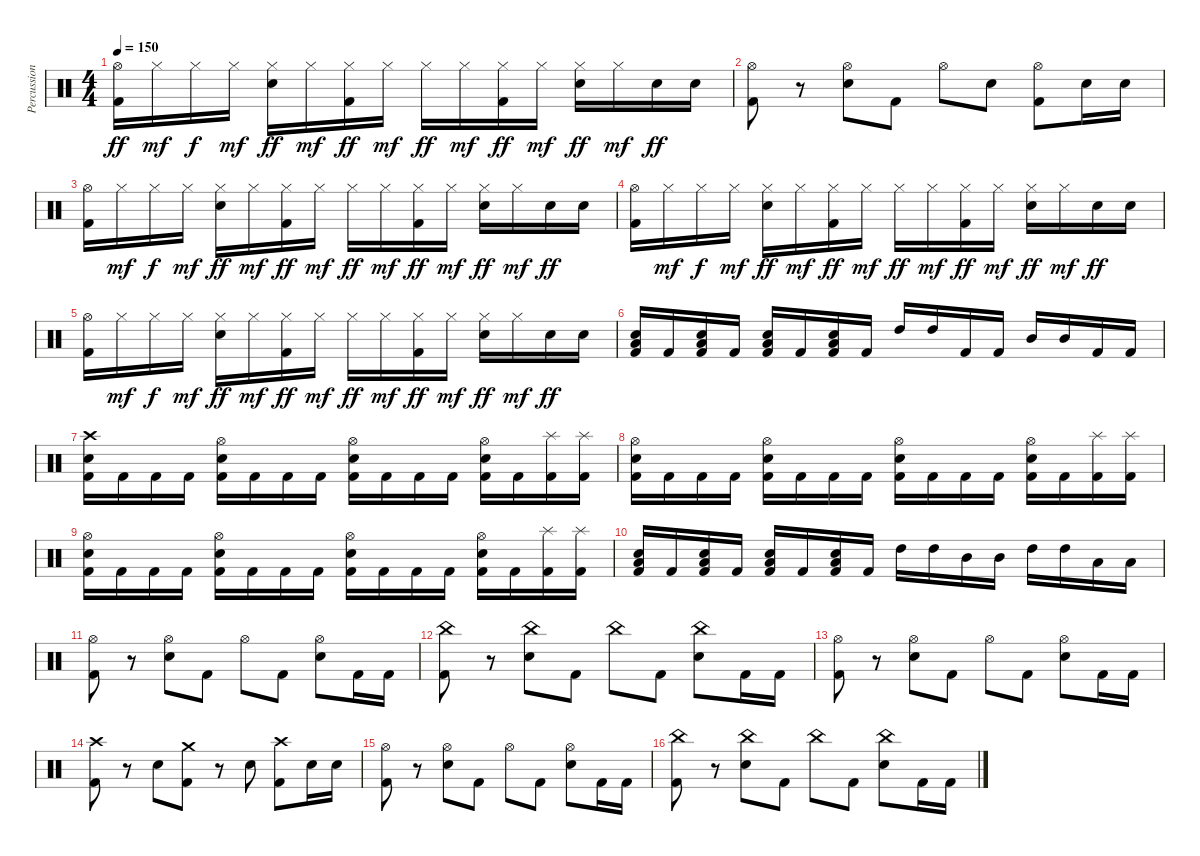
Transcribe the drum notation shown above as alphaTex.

\track ("Percussion" "Percussion") {instrument percussion}
\staff {score}
\articulation defaults
\ts (4 4)
\tempo 150
\clef neutral
\ks c
("Hi-Hat (open)" "Kick (hit) 2").16{dy ff} "Hi-Hat (closed)".16{dy mf} "Hi-Hat (closed)".16{dy f} "Hi-Hat (closed)".16{dy mf} ("Hi-Hat (closed)" "Snare (hit) 2").16{dy ff} "Hi-Hat (closed)".16{dy mf} ("Hi-Hat (closed)" "Kick (hit) 2").16{dy ff} "Hi-Hat (closed)".16{dy mf} "Hi-Hat (closed)".16{dy ff} "Hi-Hat (closed)".16{dy mf} ("Hi-Hat (closed)" "Kick (hit) 2").16{dy ff} "Hi-Hat (closed)".16{dy mf} ("Hi-Hat (closed)" "Snare (hit) 2").16{dy ff} "Hi-Hat (closed)".16{dy mf} "Snare (hit) 2".16{dy ff} "Snare (hit) 2".16 |
("Hi-Hat (open)" "Kick (hit) 2").8 r.8 ("Hi-Hat (open)" "Snare (hit) 2").8 "Kick (hit) 2".8 "Hi-Hat (open)".8 "Snare (hit) 2".8 ("Hi-Hat (open)" "Kick (hit) 2").8 "Snare (hit) 2".16 "Snare (hit) 2".16 |
("Hi-Hat (open)" "Kick (hit) 2").16 "Hi-Hat (closed)".16{dy mf} "Hi-Hat (closed)".16{dy f} "Hi-Hat (closed)".16{dy mf} ("Hi-Hat (closed)" "Snare (hit) 2").16{dy ff} "Hi-Hat (closed)".16{dy mf} ("Hi-Hat (closed)" "Kick (hit) 2").16{dy ff} "Hi-Hat (closed)".16{dy mf} "Hi-Hat (closed)".16{dy ff} "Hi-Hat (closed)".16{dy mf} ("Hi-Hat (closed)" "Kick (hit) 2").16{dy ff} "Hi-Hat (closed)".16{dy mf} ("Hi-Hat (closed)" "Snare (hit) 2").16{dy ff} "Hi-Hat (closed)".16{dy mf} "Snare (hit) 2".16{dy ff} "Snare (hit) 2".16 |
("Hi-Hat (open)" "Kick (hit) 2").16 "Hi-Hat (closed)".16{dy mf} "Hi-Hat (closed)".16{dy f} "Hi-Hat (closed)".16{dy mf} ("Hi-Hat (closed)" "Snare (hit) 2").16{dy ff} "Hi-Hat (closed)".16{dy mf} ("Hi-Hat (closed)" "Kick (hit) 2").16{dy ff} "Hi-Hat (closed)".16{dy mf} "Hi-Hat (closed)".16{dy ff} "Hi-Hat (closed)".16{dy mf} ("Hi-Hat (closed)" "Kick (hit) 2").16{dy ff} "Hi-Hat (closed)".16{dy mf} ("Hi-Hat (closed)" "Snare (hit) 2").16{dy ff} "Hi-Hat (closed)".16{dy mf} "Snare (hit) 2".16{dy ff} "Snare (hit) 2".16 |
("Hi-Hat (open)" "Kick (hit) 2").16 "Hi-Hat (closed)".16{dy mf} "Hi-Hat (closed)".16{dy f} "Hi-Hat (closed)".16{dy mf} ("Hi-Hat (closed)" "Snare (hit) 2").16{dy ff} "Hi-Hat (closed)".16{dy mf} ("Hi-Hat (closed)" "Kick (hit) 2").16{dy ff} "Hi-Hat (closed)".16{dy mf} "Hi-Hat (closed)".16{dy ff} "Hi-Hat (closed)".16{dy mf} ("Hi-Hat (closed)" "Kick (hit) 2").16{dy ff} "Hi-Hat (closed)".16{dy mf} ("Hi-Hat (closed)" "Snare (hit) 2").16{dy ff} "Hi-Hat (closed)".16{dy mf} "Snare (hit) 2".16{dy ff} "Snare (hit) 2".16 |
("Low Tom (hit)" "Snare (hit) 2" "Kick (hit) 2").16 "Kick (hit) 2".16 ("Low Tom (hit)" "Snare (hit) 2" "Kick (hit) 2").16 "Kick (hit) 2".16 ("Low Tom (hit)" "Snare (hit) 2" "Kick (hit) 2").16 "Kick (hit) 2".16 ("Low Tom (hit)" "Snare (hit) 2" "Kick (hit) 2").16 "Kick (hit) 2".16 "High Tom (hit)".16 "High Tom (hit)".16 "Kick (hit) 2".16 "Kick (hit) 2".16 "Mid Tom (hit)".16 "Mid Tom (hit)".16 "Kick (hit) 2".16 "Kick (hit) 2".16 |
("Crash high (hit)" "Snare (hit) 2" "Kick (hit) 2").16 "Kick (hit) 2".16 "Kick (hit) 2".16 "Kick (hit) 2".16 ("Hi-Hat (open)" "Snare (hit) 2" "Kick (hit) 2").16 "Kick (hit) 2".16 "Kick (hit) 2".16 "Kick (hit) 2".16 ("Hi-Hat (open)" "Snare (hit) 2" "Kick (hit) 2").16 "Kick (hit) 2".16 "Kick (hit) 2".16 "Kick (hit) 2".16 ("Hi-Hat (open)" "Snare (hit) 2" "Kick (hit) 2").16 "Kick (hit) 2".16 ("Splash (hit)" "Kick (hit) 2").16 ("Splash (hit)" "Kick (hit) 2").16 |
("Hi-Hat (open)" "Snare (hit) 2" "Kick (hit) 2").16 "Kick (hit) 2".16 "Kick (hit) 2".16 "Kick (hit) 2".16 ("Hi-Hat (open)" "Snare (hit) 2" "Kick (hit) 2").16 "Kick (hit) 2".16 "Kick (hit) 2".16 "Kick (hit) 2".16 ("Hi-Hat (open)" "Snare (hit) 2" "Kick (hit) 2").16 "Kick (hit) 2".16 "Kick (hit) 2".16 "Kick (hit) 2".16 ("Hi-Hat (open)" "Snare (hit) 2" "Kick (hit) 2").16 "Kick (hit) 2".16 ("Splash (hit)" "Kick (hit) 2").16 ("Splash (hit)" "Kick (hit) 2").16 |
("Hi-Hat (open)" "Snare (hit) 2" "Kick (hit) 2").16 "Kick (hit) 2".16 "Kick (hit) 2".16 "Kick (hit) 2".16 ("Hi-Hat (open)" "Snare (hit) 2" "Kick (hit) 2").16 "Kick (hit) 2".16 "Kick (hit) 2".16 "Kick (hit) 2".16 ("Hi-Hat (open)" "Snare (hit) 2" "Kick (hit) 2").16 "Kick (hit) 2".16 "Kick (hit) 2".16 "Kick (hit) 2".16 ("Hi-Hat (open)" "Snare (hit) 2" "Kick (hit) 2").16 "Kick (hit) 2".16 ("Splash (hit)" "Kick (hit) 2").16 ("Splash (hit)" "Kick (hit) 2").16 |
("Low Tom (hit)" "Snare (hit) 2" "Kick (hit) 2").16 "Kick (hit) 2".16 ("Low Tom (hit)" "Snare (hit) 2" "Kick (hit) 2").16 "Kick (hit) 2".16 ("Low Tom (hit)" "Snare (hit) 2" "Kick (hit) 2").16 "Kick (hit) 2".16 ("Low Tom (hit)" "Snare (hit) 2" "Kick (hit) 2").16 "Kick (hit) 2".16 "High Tom (hit)".16 "High Tom (hit)".16 "Mid Tom (hit)".16 "Mid Tom (hit)".16 "High Tom (hit)".16 "High Tom (hit)".16 "Low Tom (hit)".16 "Low Tom (hit)".16 |
("Hi-Hat (open)" "Kick (hit) 2").8 r.8 ("Hi-Hat (open)" "Snare (hit) 2").8 "Kick (hit) 2".8 "Hi-Hat (open)".8 "Kick (hit) 2".8 ("Hi-Hat (open)" "Snare (hit) 2").8 "Kick (hit) 2".16 "Kick (hit) 2".16 |
("China (hit)" "Kick (hit) 2").8 r.8 ("China (hit)" "Snare (hit) 2").8 "Kick (hit) 2".8 "China (hit)".8 "Kick (hit) 2".8 ("China (hit)" "Snare (hit) 2").8 "Kick (hit) 2".16 "Kick (hit) 2".16 |
("Hi-Hat (open)" "Kick (hit) 2").8 r.8 ("Hi-Hat (open)" "Snare (hit) 2").8 "Kick (hit) 2".8 "Hi-Hat (open)".8 "Kick (hit) 2".8 ("Hi-Hat (open)" "Snare (hit) 2").8 "Kick (hit) 2".16 "Kick (hit) 2".16 |
("Crash high (hit)" "Kick (hit) 2").8 r.8 "Snare (hit) 2".8 ("Crash medium (hit)" "Kick (hit) 2").8 r.8 "Snare (hit) 2".8 ("Crash high (hit)" "Kick (hit) 2").8 "Snare (hit) 2".16 "Snare (hit) 2".16 |
("Hi-Hat (open)" "Kick (hit) 2").8 r.8 ("Hi-Hat (open)" "Snare (hit) 2").8 "Kick (hit) 2".8 "Hi-Hat (open)".8 "Kick (hit) 2".8 ("Hi-Hat (open)" "Snare (hit) 2").8 "Kick (hit) 2".16 "Kick (hit) 2".16 |
("China (hit)" "Kick (hit) 2").8 r.8 ("China (hit)" "Snare (hit) 2").8 "Kick (hit) 2".8 "China (hit)".8 "Kick (hit) 2".8 ("China (hit)" "Snare (hit) 2").8 "Kick (hit) 2".16 "Kick (hit) 2".16
